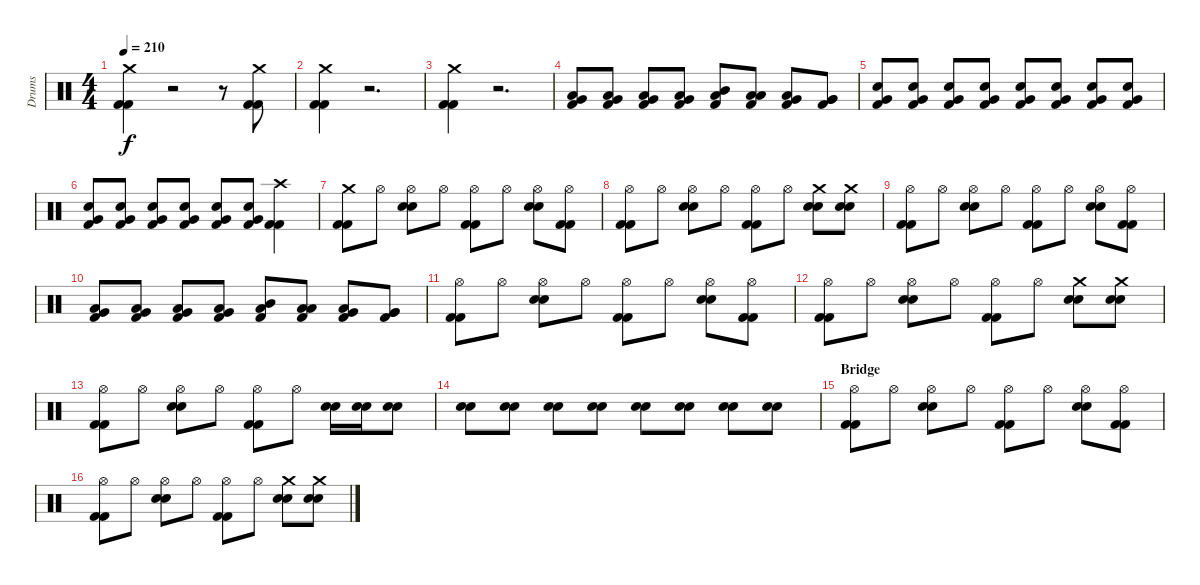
\track ("Drums" "Drums") {instrument percussion}
\staff {score}
\articulation defaults
\ts (4 4)
\tempo 210
\clef neutral
\ks c
("Crash medium (hit)" "Kick (hit) 2" "Kick (hit) 2").4{dy f} r.2 r.8 ("Crash medium (hit)" "Kick (hit) 2" "Kick (hit) 2").8 |
("Crash medium (hit)" "Kick (hit) 2" "Kick (hit) 2").4 r.2{d} |
("Crash medium (hit)" "Kick (hit) 2" "Kick (hit) 2").4 r.2{d} |
("Low Tom (hit)" "Very Low Tom (hit)" "Kick (hit) 2").8 ("Low Tom (hit)" "Very Low Tom (hit)" "Kick (hit) 2").8 ("Low Tom (hit)" "Very Low Tom (hit)" "Kick (hit) 2").8 ("Low Tom (hit)" "Very Low Tom (hit)" "Kick (hit) 2").8 ("Mid Tom (hit)" "Low Tom (hit)" "Kick (hit) 2").8 ("Low Tom (hit)" "Low Tom (hit)" "Kick (hit) 2").8 ("Very Low Tom (hit)" "Low Tom (hit)" "Kick (hit) 2").8 ("Very Low Tom (hit)" "Very Low Tom (hit)" "Kick (hit) 2").8 |
("Very Low Tom (hit)" "Snare (hit) 2" "Kick (hit) 2").8 ("Very Low Tom (hit)" "Snare (hit) 2" "Kick (hit) 2").8 ("Very Low Tom (hit)" "Snare (hit) 2" "Kick (hit) 2").8 ("Very Low Tom (hit)" "Snare (hit) 2" "Kick (hit) 2").8 ("Very Low Tom (hit)" "Snare (hit) 2" "Kick (hit) 2").8 ("Very Low Tom (hit)" "Snare (hit) 2" "Kick (hit) 2").8 ("Very Low Tom (hit)" "Snare (hit) 2" "Kick (hit) 2").8 ("Very Low Tom (hit)" "Snare (hit) 2" "Kick (hit) 2").8 |
("Very Low Tom (hit)" "Snare (hit) 2" "Kick (hit) 2").8 ("Very Low Tom (hit)" "Snare (hit) 2" "Kick (hit) 2").8 ("Very Low Tom (hit)" "Snare (hit) 2" "Kick (hit) 2").8 ("Very Low Tom (hit)" "Snare (hit) 2" "Kick (hit) 2").8 ("Very Low Tom (hit)" "Snare (hit) 2" "Kick (hit) 2").8 ("Very Low Tom (hit)" "Snare (hit) 2" "Kick (hit) 2").8 ("Crash high (hit)" "Kick (hit) 2" "Kick (hit) 2").4 |
("Crash medium (hit)" "Kick (hit) 2" "Kick (hit) 2").8 "Hi-Hat (open)".8 ("Hi-Hat (open)" "Snare (hit) 2" "Snare (hit) 2").8 "Hi-Hat (open)".8 ("Hi-Hat (open)" "Kick (hit) 2" "Kick (hit) 2").8 "Hi-Hat (open)".8 ("Hi-Hat (open)" "Snare (hit) 2" "Snare (hit) 2").8 ("Hi-Hat (open)" "Kick (hit) 2" "Kick (hit) 2").8 |
("Hi-Hat (open)" "Kick (hit) 2" "Kick (hit) 2").8 "Hi-Hat (open)".8 ("Hi-Hat (open)" "Snare (hit) 2" "Snare (hit) 2").8 "Hi-Hat (open)".8 ("Hi-Hat (open)" "Kick (hit) 2" "Kick (hit) 2").8 "Hi-Hat (open)".8 ("Crash medium (hit)" "Snare (hit) 2" "Snare (hit) 2").8 ("Crash medium (hit)" "Snare (hit) 2" "Snare (hit) 2").8 |
("Hi-Hat (open)" "Kick (hit) 2" "Kick (hit) 2").8 "Hi-Hat (open)".8 ("Hi-Hat (open)" "Snare (hit) 2" "Snare (hit) 2").8 "Hi-Hat (open)".8 ("Hi-Hat (open)" "Kick (hit) 2" "Kick (hit) 2").8 "Hi-Hat (open)".8 ("Hi-Hat (open)" "Snare (hit) 2" "Snare (hit) 2").8 ("Hi-Hat (open)" "Kick (hit) 2" "Kick (hit) 2").8 |
("Low Tom (hit)" "Very Low Tom (hit)" "Kick (hit) 2").8 ("Low Tom (hit)" "Very Low Tom (hit)" "Kick (hit) 2").8 ("Low Tom (hit)" "Very Low Tom (hit)" "Kick (hit) 2").8 ("Low Tom (hit)" "Very Low Tom (hit)" "Kick (hit) 2").8 ("Mid Tom (hit)" "Low Tom (hit)" "Kick (hit) 2").8 ("Low Tom (hit)" "Low Tom (hit)" "Kick (hit) 2").8 ("Very Low Tom (hit)" "Low Tom (hit)" "Kick (hit) 2").8 ("Very Low Tom (hit)" "Very Low Tom (hit)" "Kick (hit) 2").8 |
("Hi-Hat (open)" "Kick (hit) 2" "Kick (hit) 2").8 "Hi-Hat (open)".8 ("Hi-Hat (open)" "Snare (hit) 2" "Snare (hit) 2").8 "Hi-Hat (open)".8 ("Hi-Hat (open)" "Kick (hit) 2" "Kick (hit) 2").8 "Hi-Hat (open)".8 ("Hi-Hat (open)" "Snare (hit) 2" "Snare (hit) 2").8 ("Hi-Hat (open)" "Kick (hit) 2" "Kick (hit) 2").8 |
("Hi-Hat (open)" "Kick (hit) 2" "Kick (hit) 2").8 "Hi-Hat (open)".8 ("Hi-Hat (open)" "Snare (hit) 2" "Snare (hit) 2").8 "Hi-Hat (open)".8 ("Hi-Hat (open)" "Kick (hit) 2" "Kick (hit) 2").8 "Hi-Hat (open)".8 ("Crash medium (hit)" "Snare (hit) 2" "Snare (hit) 2").8 ("Crash medium (hit)" "Snare (hit) 2" "Snare (hit) 2").8 |
("Hi-Hat (open)" "Kick (hit) 2" "Kick (hit) 2").8 "Hi-Hat (open)".8 ("Hi-Hat (open)" "Snare (hit) 2" "Snare (hit) 2").8 "Hi-Hat (open)".8 ("Hi-Hat (open)" "Kick (hit) 2" "Kick (hit) 2").8 "Hi-Hat (open)".8 ("Snare (hit) 2" "Snare (hit) 2").16 ("Snare (hit) 2" "Snare (hit) 2").16 ("Snare (hit) 2" "Snare (hit) 2").8 |
("Snare (hit) 2" "Snare (hit) 2").8 ("Snare (hit) 2" "Snare (hit) 2").8 ("Snare (hit) 2" "Snare (hit) 2").8 ("Snare (hit) 2" "Snare (hit) 2").8 ("Snare (hit) 2" "Snare (hit) 2").8 ("Snare (hit) 2" "Snare (hit) 2").8 ("Snare (hit) 2" "Snare (hit) 2").8 ("Snare (hit) 2" "Snare (hit) 2").8 |
\section ("" "Bridge")
("Hi-Hat (open)" "Kick (hit) 2" "Kick (hit) 2").8 "Hi-Hat (open)".8 ("Hi-Hat (open)" "Snare (hit) 2" "Snare (hit) 2").8 "Hi-Hat (open)".8 ("Hi-Hat (open)" "Kick (hit) 2" "Kick (hit) 2").8 "Hi-Hat (open)".8 ("Hi-Hat (open)" "Snare (hit) 2" "Snare (hit) 2").8 ("Hi-Hat (open)" "Kick (hit) 2" "Kick (hit) 2").8 |
("Hi-Hat (open)" "Kick (hit) 2" "Kick (hit) 2").8 "Hi-Hat (open)".8 ("Hi-Hat (open)" "Snare (hit) 2" "Snare (hit) 2").8 "Hi-Hat (open)".8 ("Hi-Hat (open)" "Kick (hit) 2" "Kick (hit) 2").8 "Hi-Hat (open)".8 ("Crash medium (hit)" "Snare (hit) 2" "Snare (hit) 2").8 ("Crash medium (hit)" "Snare (hit) 2" "Snare (hit) 2").8
